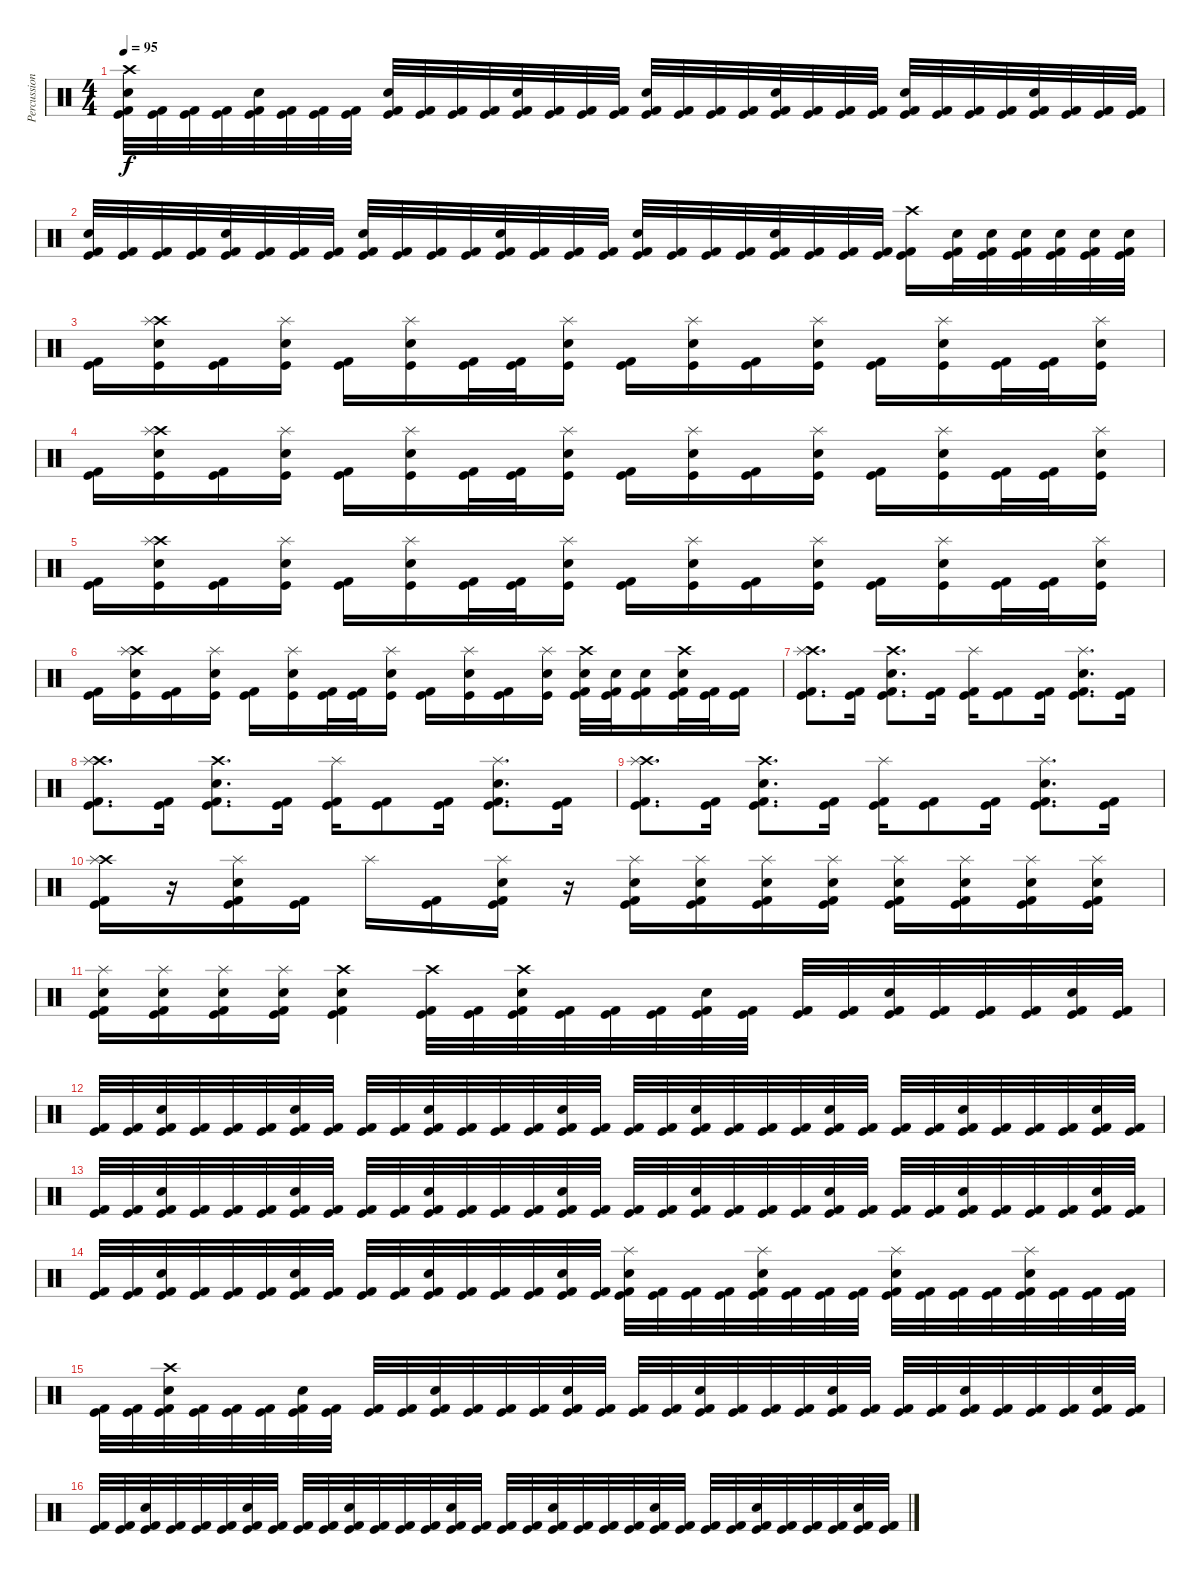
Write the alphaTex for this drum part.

\track ("Percussion" "Percussion") {instrument percussion}
\staff {score}
\articulation defaults
\ts (4 4)
\tempo 95
\clef neutral
\ks c
("Crash high (hit)" "Snare (hit) 2" "Kick (hit) 2" "Kick (hit)").32{dy f} ("Kick (hit) 2" "Kick (hit)").32 ("Kick (hit) 2" "Kick (hit)").32 ("Kick (hit) 2" "Kick (hit)").32 ("Snare (hit) 2" "Kick (hit) 2" "Kick (hit)").32 ("Kick (hit) 2" "Kick (hit)").32 ("Kick (hit) 2" "Kick (hit)").32 ("Kick (hit) 2" "Kick (hit)").32 ("Snare (hit) 2" "Kick (hit) 2" "Kick (hit)").32 ("Kick (hit) 2" "Kick (hit)").32 ("Kick (hit) 2" "Kick (hit)").32 ("Kick (hit) 2" "Kick (hit)").32 ("Snare (hit) 2" "Kick (hit) 2" "Kick (hit)").32 ("Kick (hit) 2" "Kick (hit)").32 ("Kick (hit) 2" "Kick (hit)").32 ("Kick (hit) 2" "Kick (hit)").32 ("Snare (hit) 2" "Kick (hit) 2" "Kick (hit)").32 ("Kick (hit) 2" "Kick (hit)").32 ("Kick (hit) 2" "Kick (hit)").32 ("Kick (hit) 2" "Kick (hit)").32 ("Snare (hit) 2" "Kick (hit) 2" "Kick (hit)").32 ("Kick (hit) 2" "Kick (hit)").32 ("Kick (hit) 2" "Kick (hit)").32 ("Kick (hit) 2" "Kick (hit)").32 ("Snare (hit) 2" "Kick (hit) 2" "Kick (hit)").32 ("Kick (hit) 2" "Kick (hit)").32 ("Kick (hit) 2" "Kick (hit)").32 ("Kick (hit) 2" "Kick (hit)").32 ("Snare (hit) 2" "Kick (hit) 2" "Kick (hit)").32 ("Kick (hit) 2" "Kick (hit)").32 ("Kick (hit) 2" "Kick (hit)").32 ("Kick (hit) 2" "Kick (hit)").32 |
("Snare (hit) 2" "Kick (hit) 2" "Kick (hit)").32 ("Kick (hit) 2" "Kick (hit)").32 ("Kick (hit) 2" "Kick (hit)").32 ("Kick (hit) 2" "Kick (hit)").32 ("Snare (hit) 2" "Kick (hit) 2" "Kick (hit)").32 ("Kick (hit) 2" "Kick (hit)").32 ("Kick (hit) 2" "Kick (hit)").32 ("Kick (hit) 2" "Kick (hit)").32 ("Snare (hit) 2" "Kick (hit) 2" "Kick (hit)").32 ("Kick (hit) 2" "Kick (hit)").32 ("Kick (hit) 2" "Kick (hit)").32 ("Kick (hit) 2" "Kick (hit)").32 ("Snare (hit) 2" "Kick (hit) 2" "Kick (hit)").32 ("Kick (hit) 2" "Kick (hit)").32 ("Kick (hit) 2" "Kick (hit)").32 ("Kick (hit) 2" "Kick (hit)").32 ("Snare (hit) 2" "Kick (hit) 2" "Kick (hit)").32 ("Kick (hit) 2" "Kick (hit)").32 ("Kick (hit) 2" "Kick (hit)").32 ("Kick (hit) 2" "Kick (hit)").32 ("Snare (hit) 2" "Kick (hit) 2" "Kick (hit)").32 ("Kick (hit) 2" "Kick (hit)").32 ("Kick (hit) 2" "Kick (hit)").32 ("Kick (hit) 2" "Kick (hit)").32 ("Crash high (hit)" "Kick (hit) 2" "Kick (hit)").16 ("Snare (hit) 2" "Kick (hit) 2" "Kick (hit)").32 ("Snare (hit) 2" "Kick (hit) 2" "Kick (hit)").32 ("Snare (hit) 2" "Kick (hit) 2" "Kick (hit)").32 ("Snare (hit) 2" "Kick (hit) 2" "Kick (hit)").32 ("Snare (hit) 2" "Kick (hit) 2" "Kick (hit)").32 ("Snare (hit) 2" "Kick (hit) 2" "Kick (hit)").32 |
("Kick (hit)" "Kick (hit) 2").16 ("Snare (hit) 2" "Kick (hit)" "Crash high (hit)" "Splash (hit)").16 ("Kick (hit)" "Kick (hit) 2").16 ("Snare (hit) 2" "Kick (hit)" "Splash (hit)").16 ("Kick (hit)" "Kick (hit) 2").16 ("Snare (hit) 2" "Kick (hit)" "Splash (hit)").16 ("Kick (hit)" "Kick (hit) 2").32 ("Kick (hit)" "Kick (hit) 2").32 ("Snare (hit) 2" "Kick (hit)" "Splash (hit)").16 ("Kick (hit)" "Kick (hit) 2").16 ("Snare (hit) 2" "Kick (hit)" "Splash (hit)").16 ("Kick (hit)" "Kick (hit) 2").16 ("Snare (hit) 2" "Kick (hit)" "Splash (hit)").16 ("Kick (hit)" "Kick (hit) 2").16 ("Snare (hit) 2" "Kick (hit)" "Splash (hit)").16 ("Kick (hit)" "Kick (hit) 2").32 ("Kick (hit)" "Kick (hit) 2").32 ("Snare (hit) 2" "Kick (hit)" "Splash (hit)").16 |
("Kick (hit)" "Kick (hit) 2").16 ("Snare (hit) 2" "Kick (hit)" "Crash high (hit)" "Splash (hit)").16 ("Kick (hit)" "Kick (hit) 2").16 ("Snare (hit) 2" "Kick (hit)" "Splash (hit)").16 ("Kick (hit)" "Kick (hit) 2").16 ("Snare (hit) 2" "Kick (hit)" "Splash (hit)").16 ("Kick (hit)" "Kick (hit) 2").32 ("Kick (hit)" "Kick (hit) 2").32 ("Snare (hit) 2" "Kick (hit)" "Splash (hit)").16 ("Kick (hit)" "Kick (hit) 2").16 ("Snare (hit) 2" "Kick (hit)" "Splash (hit)").16 ("Kick (hit)" "Kick (hit) 2").16 ("Snare (hit) 2" "Kick (hit)" "Splash (hit)").16 ("Kick (hit)" "Kick (hit) 2").16 ("Snare (hit) 2" "Kick (hit)" "Splash (hit)").16 ("Kick (hit)" "Kick (hit) 2").32 ("Kick (hit)" "Kick (hit) 2").32 ("Snare (hit) 2" "Kick (hit)" "Splash (hit)").16 |
("Kick (hit)" "Kick (hit) 2").16 ("Snare (hit) 2" "Kick (hit)" "Crash high (hit)" "Splash (hit)").16 ("Kick (hit)" "Kick (hit) 2").16 ("Snare (hit) 2" "Kick (hit)" "Splash (hit)").16 ("Kick (hit)" "Kick (hit) 2").16 ("Snare (hit) 2" "Kick (hit)" "Splash (hit)").16 ("Kick (hit)" "Kick (hit) 2").32 ("Kick (hit)" "Kick (hit) 2").32 ("Snare (hit) 2" "Kick (hit)" "Splash (hit)").16 ("Kick (hit)" "Kick (hit) 2").16 ("Snare (hit) 2" "Kick (hit)" "Splash (hit)").16 ("Kick (hit)" "Kick (hit) 2").16 ("Snare (hit) 2" "Kick (hit)" "Splash (hit)").16 ("Kick (hit)" "Kick (hit) 2").16 ("Snare (hit) 2" "Kick (hit)" "Splash (hit)").16 ("Kick (hit)" "Kick (hit) 2").32 ("Kick (hit)" "Kick (hit) 2").32 ("Snare (hit) 2" "Kick (hit)" "Splash (hit)").16 |
("Kick (hit)" "Kick (hit) 2").16 ("Snare (hit) 2" "Kick (hit)" "Crash high (hit)" "Splash (hit)").16 ("Kick (hit)" "Kick (hit) 2").16 ("Snare (hit) 2" "Kick (hit)" "Splash (hit)").16 ("Kick (hit)" "Kick (hit) 2").16 ("Snare (hit) 2" "Kick (hit)" "Splash (hit)").16 ("Kick (hit)" "Kick (hit) 2").32 ("Kick (hit)" "Kick (hit) 2").32 ("Snare (hit) 2" "Kick (hit)" "Splash (hit)").16 ("Kick (hit)" "Kick (hit) 2").16 ("Snare (hit) 2" "Kick (hit)" "Splash (hit)").16 ("Kick (hit)" "Kick (hit) 2").16 ("Snare (hit) 2" "Kick (hit)" "Splash (hit)").16 ("Crash high (hit)" "Kick (hit)" "Kick (hit) 2" "Snare (hit) 2").32 ("Kick (hit)" "Kick (hit) 2" "Snare (hit) 2").32 ("Kick (hit)" "Kick (hit) 2" "Snare (hit) 2").16 ("Crash high (hit)" "Snare (hit) 2" "Kick (hit) 2" "Kick (hit)").32 ("Kick (hit) 2" "Kick (hit)").32 ("Kick (hit) 2" "Kick (hit)").16 |
("Crash high (hit)" "Splash (hit)" "Kick (hit)" "Kick (hit) 2").8{d} ("Kick (hit)" "Kick (hit) 2").16 ("Crash high (hit)" "Snare (hit) 2" "Kick (hit)" "Kick (hit) 2").8{d} ("Kick (hit)" "Kick (hit) 2").16 ("Splash (hit)" "Kick (hit)" "Kick (hit) 2").16 ("Kick (hit)" "Kick (hit) 2").8 ("Kick (hit)" "Kick (hit) 2").16 ("Splash (hit)" "Snare (hit) 2" "Kick (hit)" "Kick (hit) 2").8{d} ("Kick (hit)" "Kick (hit) 2").16 |
("Crash high (hit)" "Splash (hit)" "Kick (hit)" "Kick (hit) 2").8{d} ("Kick (hit)" "Kick (hit) 2").16 ("Crash high (hit)" "Snare (hit) 2" "Kick (hit)" "Kick (hit) 2").8{d} ("Kick (hit)" "Kick (hit) 2").16 ("Splash (hit)" "Kick (hit)" "Kick (hit) 2").16 ("Kick (hit)" "Kick (hit) 2").8 ("Kick (hit)" "Kick (hit) 2").16 ("Splash (hit)" "Snare (hit) 2" "Kick (hit)" "Kick (hit) 2").8{d} ("Kick (hit)" "Kick (hit) 2").16 |
("Crash high (hit)" "Splash (hit)" "Kick (hit)" "Kick (hit) 2").8{d} ("Kick (hit)" "Kick (hit) 2").16 ("Crash high (hit)" "Snare (hit) 2" "Kick (hit)" "Kick (hit) 2").8{d} ("Kick (hit)" "Kick (hit) 2").16 ("Splash (hit)" "Kick (hit)" "Kick (hit) 2").16 ("Kick (hit)" "Kick (hit) 2").8 ("Kick (hit)" "Kick (hit) 2").16 ("Splash (hit)" "Snare (hit) 2" "Kick (hit)" "Kick (hit) 2").8{d} ("Kick (hit)" "Kick (hit) 2").16 |
("Crash high (hit)" "Splash (hit)" "Kick (hit) 2" "Kick (hit)").16 r.16 ("Splash (hit)" "Snare (hit) 2" "Kick (hit) 2" "Kick (hit)").16 ("Kick (hit) 2" "Kick (hit)").16 "Splash (hit)".16 ("Kick (hit) 2" "Kick (hit)").16 ("Splash (hit)" "Snare (hit) 2" "Kick (hit) 2" "Kick (hit)").16 r.16 ("Splash (hit)" "Snare (hit) 2" "Kick (hit)" "Kick (hit) 2").16 ("Splash (hit)" "Snare (hit) 2" "Kick (hit)" "Kick (hit) 2").16 ("Splash (hit)" "Snare (hit) 2" "Kick (hit)" "Kick (hit) 2").16 ("Splash (hit)" "Snare (hit) 2" "Kick (hit)" "Kick (hit) 2").16 ("Splash (hit)" "Snare (hit) 2" "Kick (hit)" "Kick (hit) 2").16 ("Splash (hit)" "Snare (hit) 2" "Kick (hit)" "Kick (hit) 2").16 ("Splash (hit)" "Snare (hit) 2" "Kick (hit)" "Kick (hit) 2").16 ("Splash (hit)" "Snare (hit) 2" "Kick (hit)" "Kick (hit) 2").16 |
("Splash (hit)" "Kick (hit) 2" "Kick (hit)" "Snare (hit) 2").16 ("Splash (hit)" "Kick (hit) 2" "Kick (hit)" "Snare (hit) 2").16 ("Splash (hit)" "Kick (hit) 2" "Kick (hit)" "Snare (hit) 2").16 ("Splash (hit)" "Kick (hit) 2" "Kick (hit)" "Snare (hit) 2").16 ("Crash high (hit)" "Kick (hit) 2" "Kick (hit)" "Snare (hit) 2").4 ("Crash high (hit)" "Kick (hit)" "Kick (hit) 2").32 ("Kick (hit)" "Kick (hit) 2").32 ("Crash high (hit)" "Snare (hit) 2" "Kick (hit)" "Kick (hit) 2").32 ("Kick (hit)" "Kick (hit) 2").32 ("Kick (hit)" "Kick (hit) 2").32 ("Kick (hit)" "Kick (hit) 2").32 ("Snare (hit) 2" "Kick (hit)" "Kick (hit) 2").32 ("Kick (hit)" "Kick (hit) 2").32 ("Kick (hit)" "Kick (hit) 2").32 ("Kick (hit)" "Kick (hit) 2").32 ("Snare (hit) 2" "Kick (hit)" "Kick (hit) 2").32 ("Kick (hit)" "Kick (hit) 2").32 ("Kick (hit)" "Kick (hit) 2").32 ("Kick (hit)" "Kick (hit) 2").32 ("Snare (hit) 2" "Kick (hit)" "Kick (hit) 2").32 ("Kick (hit)" "Kick (hit) 2").32 |
("Kick (hit) 2" "Kick (hit)").32 ("Kick (hit) 2" "Kick (hit)").32 ("Snare (hit) 2" "Kick (hit) 2" "Kick (hit)").32 ("Kick (hit) 2" "Kick (hit)").32 ("Kick (hit) 2" "Kick (hit)").32 ("Kick (hit) 2" "Kick (hit)").32 ("Snare (hit) 2" "Kick (hit) 2" "Kick (hit)").32 ("Kick (hit) 2" "Kick (hit)").32 ("Kick (hit) 2" "Kick (hit)").32 ("Kick (hit) 2" "Kick (hit)").32 ("Snare (hit) 2" "Kick (hit) 2" "Kick (hit)").32 ("Kick (hit) 2" "Kick (hit)").32 ("Kick (hit) 2" "Kick (hit)").32 ("Kick (hit) 2" "Kick (hit)").32 ("Snare (hit) 2" "Kick (hit) 2" "Kick (hit)").32 ("Kick (hit) 2" "Kick (hit)").32 ("Kick (hit) 2" "Kick (hit)").32 ("Kick (hit) 2" "Kick (hit)").32 ("Snare (hit) 2" "Kick (hit) 2" "Kick (hit)").32 ("Kick (hit) 2" "Kick (hit)").32 ("Kick (hit) 2" "Kick (hit)").32 ("Kick (hit) 2" "Kick (hit)").32 ("Snare (hit) 2" "Kick (hit) 2" "Kick (hit)").32 ("Kick (hit) 2" "Kick (hit)").32 ("Kick (hit) 2" "Kick (hit)").32 ("Kick (hit) 2" "Kick (hit)").32 ("Snare (hit) 2" "Kick (hit) 2" "Kick (hit)").32 ("Kick (hit) 2" "Kick (hit)").32 ("Kick (hit) 2" "Kick (hit)").32 ("Kick (hit) 2" "Kick (hit)").32 ("Snare (hit) 2" "Kick (hit) 2" "Kick (hit)").32 ("Kick (hit) 2" "Kick (hit)").32 |
("Kick (hit) 2" "Kick (hit)").32 ("Kick (hit) 2" "Kick (hit)").32 ("Snare (hit) 2" "Kick (hit) 2" "Kick (hit)").32 ("Kick (hit) 2" "Kick (hit)").32 ("Kick (hit) 2" "Kick (hit)").32 ("Kick (hit) 2" "Kick (hit)").32 ("Snare (hit) 2" "Kick (hit) 2" "Kick (hit)").32 ("Kick (hit) 2" "Kick (hit)").32 ("Kick (hit) 2" "Kick (hit)").32 ("Kick (hit) 2" "Kick (hit)").32 ("Snare (hit) 2" "Kick (hit) 2" "Kick (hit)").32 ("Kick (hit) 2" "Kick (hit)").32 ("Kick (hit) 2" "Kick (hit)").32 ("Kick (hit) 2" "Kick (hit)").32 ("Snare (hit) 2" "Kick (hit) 2" "Kick (hit)").32 ("Kick (hit) 2" "Kick (hit)").32 ("Kick (hit) 2" "Kick (hit)").32 ("Kick (hit) 2" "Kick (hit)").32 ("Snare (hit) 2" "Kick (hit) 2" "Kick (hit)").32 ("Kick (hit) 2" "Kick (hit)").32 ("Kick (hit) 2" "Kick (hit)").32 ("Kick (hit) 2" "Kick (hit)").32 ("Snare (hit) 2" "Kick (hit) 2" "Kick (hit)").32 ("Kick (hit) 2" "Kick (hit)").32 ("Kick (hit) 2" "Kick (hit)").32 ("Kick (hit) 2" "Kick (hit)").32 ("Snare (hit) 2" "Kick (hit) 2" "Kick (hit)").32 ("Kick (hit) 2" "Kick (hit)").32 ("Kick (hit) 2" "Kick (hit)").32 ("Kick (hit) 2" "Kick (hit)").32 ("Snare (hit) 2" "Kick (hit) 2" "Kick (hit)").32 ("Kick (hit) 2" "Kick (hit)").32 |
("Kick (hit) 2" "Kick (hit)").32 ("Kick (hit) 2" "Kick (hit)").32 ("Snare (hit) 2" "Kick (hit) 2" "Kick (hit)").32 ("Kick (hit) 2" "Kick (hit)").32 ("Kick (hit) 2" "Kick (hit)").32 ("Kick (hit) 2" "Kick (hit)").32 ("Snare (hit) 2" "Kick (hit) 2" "Kick (hit)").32 ("Kick (hit) 2" "Kick (hit)").32 ("Kick (hit) 2" "Kick (hit)").32 ("Kick (hit) 2" "Kick (hit)").32 ("Snare (hit) 2" "Kick (hit) 2" "Kick (hit)").32 ("Kick (hit) 2" "Kick (hit)").32 ("Kick (hit) 2" "Kick (hit)").32 ("Kick (hit) 2" "Kick (hit)").32 ("Snare (hit) 2" "Kick (hit) 2" "Kick (hit)").32 ("Kick (hit) 2" "Kick (hit)").32 ("Splash (hit)" "Snare (hit) 2" "Kick (hit) 2" "Kick (hit)").32 ("Kick (hit) 2" "Kick (hit)").32 ("Kick (hit) 2" "Kick (hit)").32 ("Kick (hit) 2" "Kick (hit)").32 ("Splash (hit)" "Snare (hit) 2" "Kick (hit) 2" "Kick (hit)").32 ("Kick (hit) 2" "Kick (hit)").32 ("Kick (hit) 2" "Kick (hit)").32 ("Kick (hit) 2" "Kick (hit)").32 ("Splash (hit)" "Snare (hit) 2" "Kick (hit) 2" "Kick (hit)").32 ("Kick (hit) 2" "Kick (hit)").32 ("Kick (hit) 2" "Kick (hit)").32 ("Kick (hit) 2" "Kick (hit)").32 ("Splash (hit)" "Snare (hit) 2" "Kick (hit) 2" "Kick (hit)").32 ("Kick (hit) 2" "Kick (hit)").32 ("Kick (hit) 2" "Kick (hit)").32 ("Kick (hit) 2" "Kick (hit)").32 |
("Kick (hit) 2" "Kick (hit)").32 ("Kick (hit) 2" "Kick (hit)").32 ("Crash high (hit)" "Snare (hit) 2" "Kick (hit) 2" "Kick (hit)").32 ("Kick (hit) 2" "Kick (hit)").32 ("Kick (hit) 2" "Kick (hit)").32 ("Kick (hit) 2" "Kick (hit)").32 ("Snare (hit) 2" "Kick (hit) 2" "Kick (hit)").32 ("Kick (hit) 2" "Kick (hit)").32 ("Kick (hit) 2" "Kick (hit)").32 ("Kick (hit) 2" "Kick (hit)").32 ("Snare (hit) 2" "Kick (hit) 2" "Kick (hit)").32 ("Kick (hit) 2" "Kick (hit)").32 ("Kick (hit) 2" "Kick (hit)").32 ("Kick (hit) 2" "Kick (hit)").32 ("Snare (hit) 2" "Kick (hit) 2" "Kick (hit)").32 ("Kick (hit) 2" "Kick (hit)").32 ("Kick (hit) 2" "Kick (hit)").32 ("Kick (hit) 2" "Kick (hit)").32 ("Snare (hit) 2" "Kick (hit) 2" "Kick (hit)").32 ("Kick (hit) 2" "Kick (hit)").32 ("Kick (hit) 2" "Kick (hit)").32 ("Kick (hit) 2" "Kick (hit)").32 ("Snare (hit) 2" "Kick (hit) 2" "Kick (hit)").32 ("Kick (hit) 2" "Kick (hit)").32 ("Kick (hit) 2" "Kick (hit)").32 ("Kick (hit) 2" "Kick (hit)").32 ("Snare (hit) 2" "Kick (hit) 2" "Kick (hit)").32 ("Kick (hit) 2" "Kick (hit)").32 ("Kick (hit) 2" "Kick (hit)").32 ("Kick (hit) 2" "Kick (hit)").32 ("Snare (hit) 2" "Kick (hit) 2" "Kick (hit)").32 ("Kick (hit) 2" "Kick (hit)").32 |
("Kick (hit) 2" "Kick (hit)").32 ("Kick (hit) 2" "Kick (hit)").32 ("Snare (hit) 2" "Kick (hit) 2" "Kick (hit)").32 ("Kick (hit) 2" "Kick (hit)").32 ("Kick (hit) 2" "Kick (hit)").32 ("Kick (hit) 2" "Kick (hit)").32 ("Snare (hit) 2" "Kick (hit) 2" "Kick (hit)").32 ("Kick (hit) 2" "Kick (hit)").32 ("Kick (hit) 2" "Kick (hit)").32 ("Kick (hit) 2" "Kick (hit)").32 ("Snare (hit) 2" "Kick (hit) 2" "Kick (hit)").32 ("Kick (hit) 2" "Kick (hit)").32 ("Kick (hit) 2" "Kick (hit)").32 ("Kick (hit) 2" "Kick (hit)").32 ("Snare (hit) 2" "Kick (hit) 2" "Kick (hit)").32 ("Kick (hit) 2" "Kick (hit)").32 ("Kick (hit) 2" "Kick (hit)").32 ("Kick (hit) 2" "Kick (hit)").32 ("Snare (hit) 2" "Kick (hit) 2" "Kick (hit)").32 ("Kick (hit) 2" "Kick (hit)").32 ("Kick (hit) 2" "Kick (hit)").32 ("Kick (hit) 2" "Kick (hit)").32 ("Snare (hit) 2" "Kick (hit) 2" "Kick (hit)").32 ("Kick (hit) 2" "Kick (hit)").32 ("Kick (hit) 2" "Kick (hit)").32 ("Kick (hit) 2" "Kick (hit)").32 ("Snare (hit) 2" "Kick (hit) 2" "Kick (hit)").32 ("Kick (hit) 2" "Kick (hit)").32 ("Kick (hit) 2" "Kick (hit)").32 ("Kick (hit) 2" "Kick (hit)").32 ("Snare (hit) 2" "Kick (hit) 2" "Kick (hit)").32 ("Kick (hit) 2" "Kick (hit)").32
